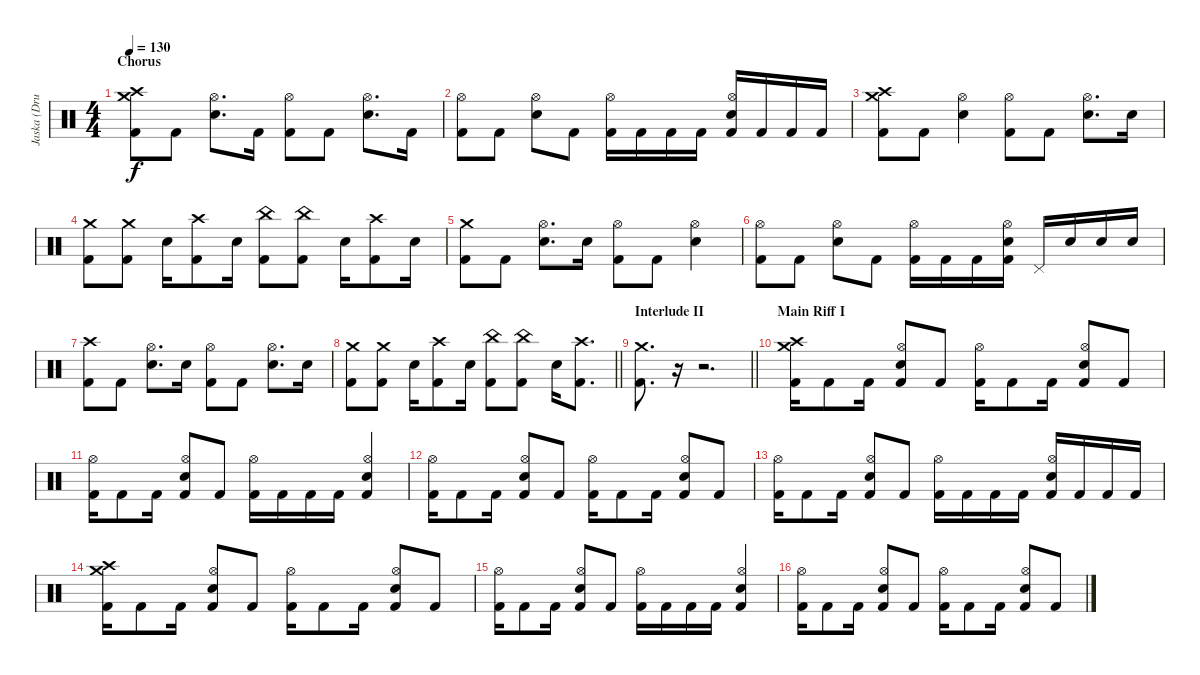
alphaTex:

\track ("Jaska (Drums)" "Jaska (Dru") {instrument percussion}
\staff {score}
\articulation defaults
\ts (4 4)
\section ("" "Chorus")
\tempo 130
\clef neutral
\ks c
("Crash medium (hit)" "Crash high (hit)" "Kick (hit) 2").8{dy f} "Kick (hit) 2".8 ("Hi-Hat (open)" "Electric Snare (hit)").8{d} "Kick (hit) 2".16 ("Hi-Hat (open)" "Kick (hit) 2").8 "Kick (hit) 2".8 ("Hi-Hat (open)" "Electric Snare (hit)").8{d} "Kick (hit) 2".16 |
("Hi-Hat (open)" "Kick (hit) 2").8 "Kick (hit) 2".8 ("Hi-Hat (open)" "Electric Snare (hit)").8 "Kick (hit) 2".8 ("Hi-Hat (open)" "Kick (hit) 2").16 "Kick (hit) 2".16 "Kick (hit) 2".16 "Kick (hit) 2".16 ("Hi-Hat (open)" "Electric Snare (hit)" "Kick (hit) 2").16 "Kick (hit) 2".16 "Kick (hit) 2".16 "Kick (hit) 2".16 |
("Crash medium (hit)" "Crash high (hit)" "Kick (hit) 2").8 "Kick (hit) 2".8 ("Hi-Hat (open)" "Electric Snare (hit)").4 ("Hi-Hat (open)" "Kick (hit) 2").8 "Kick (hit) 2".8 ("Hi-Hat (open)" "Electric Snare (hit)").8{d} "Electric Snare (hit)".16 |
("Crash medium (hit)" "Kick (hit) 2").8 ("Crash medium (hit)" "Kick (hit) 2").8 "Electric Snare (hit)".16 ("Crash high (hit)" "Kick (hit) 2").8 "Electric Snare (hit)".16 ("China (hit)" "Kick (hit) 2").8 ("China (hit)" "Kick (hit) 2").8 "Electric Snare (hit)".16 ("Crash high (hit)" "Kick (hit) 2").8 "Electric Snare (hit)".16 |
("Crash medium (hit)" "Kick (hit) 2").8 "Kick (hit) 2".8 ("Hi-Hat (open)" "Electric Snare (hit)").8{d} "Electric Snare (hit)".16 ("Hi-Hat (open)" "Kick (hit) 2").8 "Kick (hit) 2".8 ("Hi-Hat (open)" "Electric Snare (hit)").4 |
("Hi-Hat (open)" "Kick (hit) 2").8 "Kick (hit) 2".8 ("Hi-Hat (open)" "Electric Snare (hit)").8 "Kick (hit) 2".8 ("Hi-Hat (open)" "Kick (hit) 2").16 "Kick (hit) 2".16 "Kick (hit) 2".16 ("Hi-Hat (open)" "Electric Snare (hit)" "Kick (hit) 2").16 "Pedal Hi-Hat (hit)".16 "Electric Snare (hit)".16 "Electric Snare (hit)".16 "Electric Snare (hit)".16 |
("Crash high (hit)" "Kick (hit) 2").8 "Kick (hit) 2".8 ("Hi-Hat (open)" "Electric Snare (hit)").8{d} "Electric Snare (hit)".16 ("Hi-Hat (open)" "Kick (hit) 2").8 "Kick (hit) 2".8 ("Hi-Hat (open)" "Electric Snare (hit)").8{d} "Electric Snare (hit)".16 |
\barLineRight lightlight
("Crash medium (hit)" "Kick (hit) 2").8 ("Crash medium (hit)" "Kick (hit) 2").8 "Electric Snare (hit)".16 ("Crash high (hit)" "Kick (hit) 2").8 "Electric Snare (hit)".16 ("China (hit)" "Kick (hit) 2").8 ("China (hit)" "Kick (hit) 2").8 "Electric Snare (hit)".16 ("Crash high (hit)" "Kick (hit) 2").8{d} |
\section ("" "Interlude II")
\barLineRight lightlight
("Crash medium (hit)" "Kick (hit) 2").8{d} r.16{volume 0} r.2{d} |
\section ("" "Main Riff I")
("Crash medium (hit)" "Crash high (hit)" "Kick (hit) 2").16{volume 16 balance 8} "Kick (hit) 2".8 "Kick (hit) 2".16 ("Hi-Hat (open)" "Electric Snare (hit)" "Kick (hit) 2").8 "Kick (hit) 2".8 ("Hi-Hat (open)" "Kick (hit) 2").16 "Kick (hit) 2".8 "Kick (hit) 2".16 ("Hi-Hat (open)" "Electric Snare (hit)" "Kick (hit) 2").8 "Kick (hit) 2".8 |
("Hi-Hat (open)" "Kick (hit) 2").16 "Kick (hit) 2".8 "Kick (hit) 2".16 ("Hi-Hat (open)" "Electric Snare (hit)" "Kick (hit) 2").8 "Kick (hit) 2".8 ("Hi-Hat (open)" "Kick (hit) 2").16 "Kick (hit) 2".16 "Kick (hit) 2".16 "Kick (hit) 2".16 ("Hi-Hat (open)" "Electric Snare (hit)" "Kick (hit) 2").4 |
("Hi-Hat (open)" "Kick (hit) 2").16 "Kick (hit) 2".8 "Kick (hit) 2".16 ("Hi-Hat (open)" "Electric Snare (hit)" "Kick (hit) 2").8 "Kick (hit) 2".8 ("Hi-Hat (open)" "Kick (hit) 2").16 "Kick (hit) 2".8 "Kick (hit) 2".16 ("Hi-Hat (open)" "Electric Snare (hit)" "Kick (hit) 2").8 "Kick (hit) 2".8 |
("Hi-Hat (open)" "Kick (hit) 2").16 "Kick (hit) 2".8 "Kick (hit) 2".16 ("Hi-Hat (open)" "Electric Snare (hit)" "Kick (hit) 2").8 "Kick (hit) 2".8 ("Hi-Hat (open)" "Kick (hit) 2").16 "Kick (hit) 2".16 "Kick (hit) 2".16 "Kick (hit) 2".16 ("Hi-Hat (open)" "Electric Snare (hit)" "Kick (hit) 2").16 "Kick (hit) 2".16 "Kick (hit) 2".16 "Kick (hit) 2".16 |
("Crash medium (hit)" "Crash high (hit)" "Kick (hit) 2").16 "Kick (hit) 2".8 "Kick (hit) 2".16 ("Hi-Hat (open)" "Electric Snare (hit)" "Kick (hit) 2").8 "Kick (hit) 2".8 ("Hi-Hat (open)" "Kick (hit) 2").16 "Kick (hit) 2".8 "Kick (hit) 2".16 ("Hi-Hat (open)" "Electric Snare (hit)" "Kick (hit) 2").8 "Kick (hit) 2".8 |
("Hi-Hat (open)" "Kick (hit) 2").16 "Kick (hit) 2".8 "Kick (hit) 2".16 ("Hi-Hat (open)" "Electric Snare (hit)" "Kick (hit) 2").8 "Kick (hit) 2".8 ("Hi-Hat (open)" "Kick (hit) 2").16 "Kick (hit) 2".16 "Kick (hit) 2".16 "Kick (hit) 2".16 ("Hi-Hat (open)" "Electric Snare (hit)" "Kick (hit) 2").4 |
("Hi-Hat (open)" "Kick (hit) 2").16 "Kick (hit) 2".8 "Kick (hit) 2".16 ("Hi-Hat (open)" "Electric Snare (hit)" "Kick (hit) 2").8 "Kick (hit) 2".8 ("Hi-Hat (open)" "Kick (hit) 2").16 "Kick (hit) 2".8 "Kick (hit) 2".16 ("Hi-Hat (open)" "Electric Snare (hit)" "Kick (hit) 2").8 "Kick (hit) 2".8
